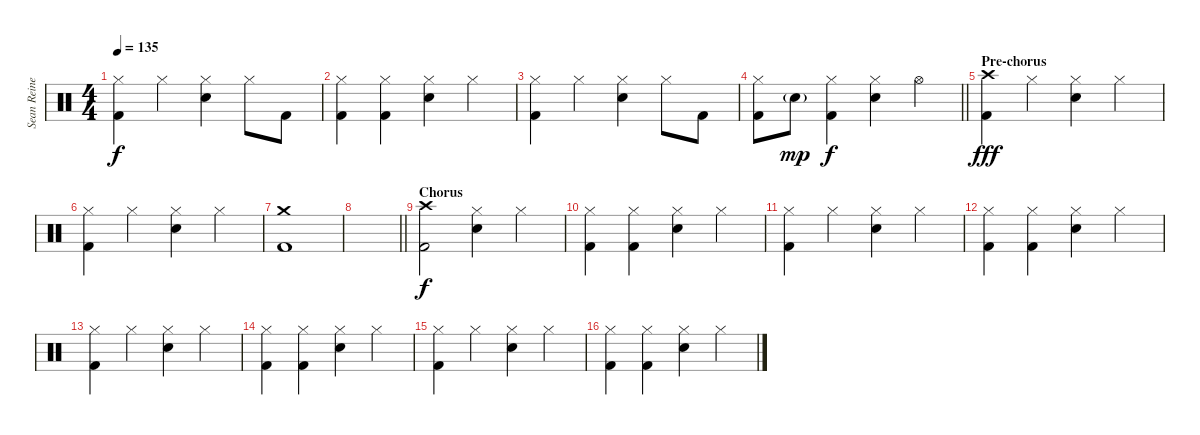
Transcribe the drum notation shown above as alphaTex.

\track ("Sean Reinert" "Sean Reine") {instrument percussion}
\staff {score}
\articulation defaults
\ts (4 4)
\tempo 135
\clef neutral
\ks c
("Hi-Hat (closed)" "Kick (hit) 2").4{dy f} "Hi-Hat (closed)".4 ("Hi-Hat (closed)" "Snare (hit) 2").4 "Hi-Hat (closed)".8 "Kick (hit) 2".8 |
("Hi-Hat (closed)" "Kick (hit) 2").4 ("Hi-Hat (closed)" "Kick (hit) 2").4 ("Hi-Hat (closed)" "Snare (hit) 2").4 "Hi-Hat (closed)".4 |
("Hi-Hat (closed)" "Kick (hit) 2").4 "Hi-Hat (closed)".4 ("Hi-Hat (closed)" "Snare (hit) 2").4 "Hi-Hat (closed)".8 "Kick (hit) 2".8 |
\barLineRight lightlight
("Hi-Hat (closed)" "Kick (hit) 2").8 "Snare (hit) 2"{g}.8{dy mp} ("Hi-Hat (closed)" "Kick (hit) 2").4{dy f} ("Hi-Hat (closed)" "Snare (hit) 2").4 "Hi-Hat (open)".4 |
\section ("" "Pre-chorus")
("Crash high (hit)" "Kick (hit) 2").4{dy fff} "Hi-Hat (closed)".4 ("Hi-Hat (closed)" "Snare (hit) 2").4 "Hi-Hat (closed)".4 |
("Hi-Hat (closed)" "Kick (hit) 2").4 "Hi-Hat (closed)".4 ("Hi-Hat (closed)" "Snare (hit) 2").4 "Hi-Hat (closed)".4 |
("Crash medium (hit)" "Kick (hit) 2").1 |
\barLineRight lightlight
|
\section ("" "Chorus")
("Crash high (hit)" "Kick (hit) 2").2{dy f} ("Hi-Hat (closed)" "Snare (hit) 2").4 "Hi-Hat (closed)".4 |
("Hi-Hat (closed)" "Kick (hit) 2").4 ("Hi-Hat (closed)" "Kick (hit) 2").4 ("Hi-Hat (closed)" "Snare (hit) 2").4 "Hi-Hat (closed)".4 |
("Hi-Hat (closed)" "Kick (hit) 2").4 "Hi-Hat (closed)".4 ("Hi-Hat (closed)" "Snare (hit) 2").4 "Hi-Hat (closed)".4 |
("Hi-Hat (closed)" "Kick (hit) 2").4 ("Hi-Hat (closed)" "Kick (hit) 2").4 ("Hi-Hat (closed)" "Snare (hit) 2").4 "Hi-Hat (closed)".4 |
("Hi-Hat (closed)" "Kick (hit) 2").4 "Hi-Hat (closed)".4 ("Hi-Hat (closed)" "Snare (hit) 2").4 "Hi-Hat (closed)".4 |
("Hi-Hat (closed)" "Kick (hit) 2").4 ("Hi-Hat (closed)" "Kick (hit) 2").4 ("Hi-Hat (closed)" "Snare (hit) 2").4 "Hi-Hat (closed)".4 |
("Hi-Hat (closed)" "Kick (hit) 2").4 "Hi-Hat (closed)".4 ("Hi-Hat (closed)" "Snare (hit) 2").4 "Hi-Hat (closed)".4 |
("Hi-Hat (closed)" "Kick (hit) 2").4 ("Hi-Hat (closed)" "Kick (hit) 2").4 ("Hi-Hat (closed)" "Snare (hit) 2").4 "Hi-Hat (closed)".4
